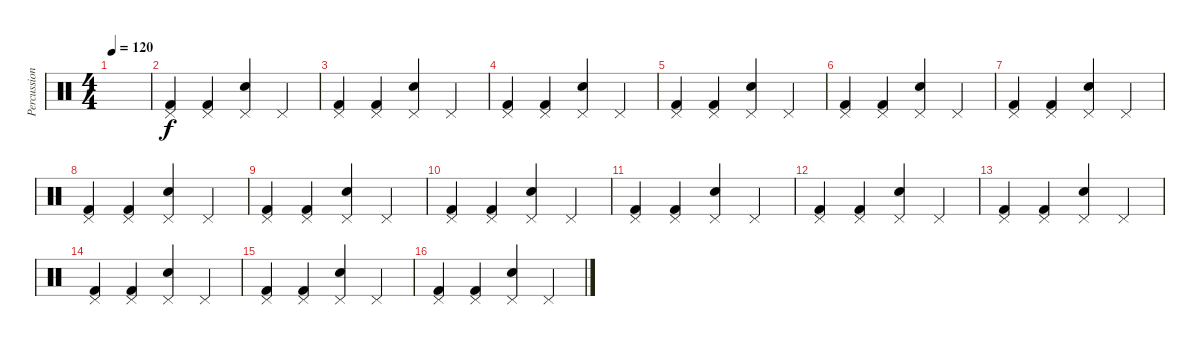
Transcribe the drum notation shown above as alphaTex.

\track ("Percussion" "Percussion") {instrument percussion}
\staff {score}
\articulation defaults
\ts (4 4)
\tempo 120
\clef neutral
\ks c
|
("Kick (hit) 2" "Pedal Hi-Hat (hit)").4 ("Kick (hit) 2" "Pedal Hi-Hat (hit)").4 ("Electric Snare (hit)" "Pedal Hi-Hat (hit)").4 "Pedal Hi-Hat (hit)".4 |
("Kick (hit) 2" "Pedal Hi-Hat (hit)").4 ("Kick (hit) 2" "Pedal Hi-Hat (hit)").4 ("Electric Snare (hit)" "Pedal Hi-Hat (hit)").4 "Pedal Hi-Hat (hit)".4 |
("Kick (hit) 2" "Pedal Hi-Hat (hit)").4 ("Kick (hit) 2" "Pedal Hi-Hat (hit)").4 ("Electric Snare (hit)" "Pedal Hi-Hat (hit)").4 "Pedal Hi-Hat (hit)".4 |
("Kick (hit) 2" "Pedal Hi-Hat (hit)").4 ("Kick (hit) 2" "Pedal Hi-Hat (hit)").4 ("Electric Snare (hit)" "Pedal Hi-Hat (hit)").4 "Pedal Hi-Hat (hit)".4 |
("Kick (hit) 2" "Pedal Hi-Hat (hit)").4 ("Kick (hit) 2" "Pedal Hi-Hat (hit)").4 ("Electric Snare (hit)" "Pedal Hi-Hat (hit)").4 "Pedal Hi-Hat (hit)".4 |
("Kick (hit) 2" "Pedal Hi-Hat (hit)").4 ("Kick (hit) 2" "Pedal Hi-Hat (hit)").4 ("Electric Snare (hit)" "Pedal Hi-Hat (hit)").4 "Pedal Hi-Hat (hit)".4 |
("Kick (hit) 2" "Pedal Hi-Hat (hit)").4 ("Kick (hit) 2" "Pedal Hi-Hat (hit)").4 ("Electric Snare (hit)" "Pedal Hi-Hat (hit)").4 "Pedal Hi-Hat (hit)".4 |
("Kick (hit) 2" "Pedal Hi-Hat (hit)").4 ("Kick (hit) 2" "Pedal Hi-Hat (hit)").4 ("Electric Snare (hit)" "Pedal Hi-Hat (hit)").4 "Pedal Hi-Hat (hit)".4 |
("Kick (hit) 2" "Pedal Hi-Hat (hit)").4 ("Kick (hit) 2" "Pedal Hi-Hat (hit)").4 ("Electric Snare (hit)" "Pedal Hi-Hat (hit)").4 "Pedal Hi-Hat (hit)".4 |
("Kick (hit) 2" "Pedal Hi-Hat (hit)").4 ("Kick (hit) 2" "Pedal Hi-Hat (hit)").4 ("Electric Snare (hit)" "Pedal Hi-Hat (hit)").4 "Pedal Hi-Hat (hit)".4 |
("Kick (hit) 2" "Pedal Hi-Hat (hit)").4 ("Kick (hit) 2" "Pedal Hi-Hat (hit)").4 ("Electric Snare (hit)" "Pedal Hi-Hat (hit)").4 "Pedal Hi-Hat (hit)".4 |
("Kick (hit) 2" "Pedal Hi-Hat (hit)").4 ("Kick (hit) 2" "Pedal Hi-Hat (hit)").4 ("Electric Snare (hit)" "Pedal Hi-Hat (hit)").4 "Pedal Hi-Hat (hit)".4 |
("Kick (hit) 2" "Pedal Hi-Hat (hit)").4 ("Kick (hit) 2" "Pedal Hi-Hat (hit)").4 ("Electric Snare (hit)" "Pedal Hi-Hat (hit)").4 "Pedal Hi-Hat (hit)".4 |
("Kick (hit) 2" "Pedal Hi-Hat (hit)").4 ("Kick (hit) 2" "Pedal Hi-Hat (hit)").4 ("Electric Snare (hit)" "Pedal Hi-Hat (hit)").4 "Pedal Hi-Hat (hit)".4 |
("Kick (hit) 2" "Pedal Hi-Hat (hit)").4 ("Kick (hit) 2" "Pedal Hi-Hat (hit)").4 ("Electric Snare (hit)" "Pedal Hi-Hat (hit)").4 "Pedal Hi-Hat (hit)".4
